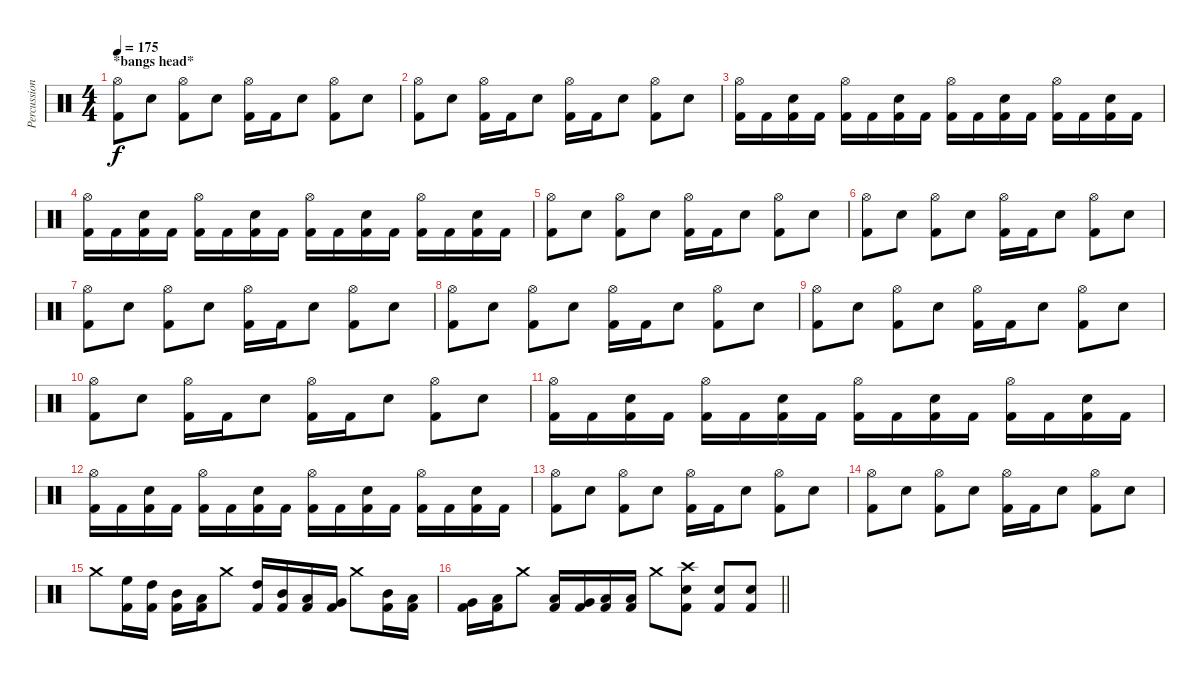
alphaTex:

\track ("Percussion" "Percussion") {instrument percussion}
\staff {score}
\articulation defaults
\ts (4 4)
\section ("" "*bangs head*")
\tempo 175
\clef neutral
\ks c
("Hi-Hat (open)" "Kick (hit) 2").8{dy f} "Electric Snare (hit)".8 ("Hi-Hat (open)" "Kick (hit) 2").8 "Electric Snare (hit)".8 ("Hi-Hat (open)" "Kick (hit) 2").16 "Kick (hit) 2".16 "Electric Snare (hit)".8 ("Hi-Hat (open)" "Kick (hit) 2").8 "Electric Snare (hit)".8 |
("Hi-Hat (open)" "Kick (hit) 2").8 "Electric Snare (hit)".8 ("Hi-Hat (open)" "Kick (hit) 2").16 "Kick (hit) 2".16 "Electric Snare (hit)".8 ("Hi-Hat (open)" "Kick (hit) 2").16 "Kick (hit) 2".16 "Electric Snare (hit)".8 ("Hi-Hat (open)" "Kick (hit) 2").8 "Electric Snare (hit)".8 |
("Hi-Hat (open)" "Kick (hit) 2").16 "Kick (hit) 2".16 ("Electric Snare (hit)" "Kick (hit) 2").16 "Kick (hit) 2".16 ("Hi-Hat (open)" "Kick (hit) 2").16 "Kick (hit) 2".16 ("Electric Snare (hit)" "Kick (hit) 2").16 "Kick (hit) 2".16 ("Hi-Hat (open)" "Kick (hit) 2").16 "Kick (hit) 2".16 ("Electric Snare (hit)" "Kick (hit) 2").16 "Kick (hit) 2".16 ("Hi-Hat (open)" "Kick (hit) 2").16 "Kick (hit) 2".16 ("Electric Snare (hit)" "Kick (hit) 2").16 "Kick (hit) 2".16 |
("Hi-Hat (open)" "Kick (hit) 2").16 "Kick (hit) 2".16 ("Electric Snare (hit)" "Kick (hit) 2").16 "Kick (hit) 2".16 ("Hi-Hat (open)" "Kick (hit) 2").16 "Kick (hit) 2".16 ("Electric Snare (hit)" "Kick (hit) 2").16 "Kick (hit) 2".16 ("Hi-Hat (open)" "Kick (hit) 2").16 "Kick (hit) 2".16 ("Electric Snare (hit)" "Kick (hit) 2").16 "Kick (hit) 2".16 ("Hi-Hat (open)" "Kick (hit) 2").16 "Kick (hit) 2".16 ("Electric Snare (hit)" "Kick (hit) 2").16 "Kick (hit) 2".16 |
("Hi-Hat (open)" "Kick (hit) 2").8 "Electric Snare (hit)".8 ("Hi-Hat (open)" "Kick (hit) 2").8 "Electric Snare (hit)".8 ("Hi-Hat (open)" "Kick (hit) 2").16 "Kick (hit) 2".16 "Electric Snare (hit)".8 ("Hi-Hat (open)" "Kick (hit) 2").8 "Electric Snare (hit)".8 |
("Hi-Hat (open)" "Kick (hit) 2").8 "Electric Snare (hit)".8 ("Hi-Hat (open)" "Kick (hit) 2").8 "Electric Snare (hit)".8 ("Hi-Hat (open)" "Kick (hit) 2").16 "Kick (hit) 2".16 "Electric Snare (hit)".8 ("Hi-Hat (open)" "Kick (hit) 2").8 "Electric Snare (hit)".8 |
("Hi-Hat (open)" "Kick (hit) 2").8 "Electric Snare (hit)".8 ("Hi-Hat (open)" "Kick (hit) 2").8 "Electric Snare (hit)".8 ("Hi-Hat (open)" "Kick (hit) 2").16 "Kick (hit) 2".16 "Electric Snare (hit)".8 ("Hi-Hat (open)" "Kick (hit) 2").8 "Electric Snare (hit)".8 |
("Hi-Hat (open)" "Kick (hit) 2").8 "Electric Snare (hit)".8 ("Hi-Hat (open)" "Kick (hit) 2").8 "Electric Snare (hit)".8 ("Hi-Hat (open)" "Kick (hit) 2").16 "Kick (hit) 2".16 "Electric Snare (hit)".8 ("Hi-Hat (open)" "Kick (hit) 2").8 "Electric Snare (hit)".8 |
("Hi-Hat (open)" "Kick (hit) 2").8 "Electric Snare (hit)".8 ("Hi-Hat (open)" "Kick (hit) 2").8 "Electric Snare (hit)".8 ("Hi-Hat (open)" "Kick (hit) 2").16 "Kick (hit) 2".16 "Electric Snare (hit)".8 ("Hi-Hat (open)" "Kick (hit) 2").8 "Electric Snare (hit)".8 |
("Hi-Hat (open)" "Kick (hit) 2").8 "Electric Snare (hit)".8 ("Hi-Hat (open)" "Kick (hit) 2").16 "Kick (hit) 2".16 "Electric Snare (hit)".8 ("Hi-Hat (open)" "Kick (hit) 2").16 "Kick (hit) 2".16 "Electric Snare (hit)".8 ("Hi-Hat (open)" "Kick (hit) 2").8 "Electric Snare (hit)".8 |
("Hi-Hat (open)" "Kick (hit) 2").16 "Kick (hit) 2".16 ("Electric Snare (hit)" "Kick (hit) 2").16 "Kick (hit) 2".16 ("Hi-Hat (open)" "Kick (hit) 2").16 "Kick (hit) 2".16 ("Electric Snare (hit)" "Kick (hit) 2").16 "Kick (hit) 2".16 ("Hi-Hat (open)" "Kick (hit) 2").16 "Kick (hit) 2".16 ("Electric Snare (hit)" "Kick (hit) 2").16 "Kick (hit) 2".16 ("Hi-Hat (open)" "Kick (hit) 2").16 "Kick (hit) 2".16 ("Electric Snare (hit)" "Kick (hit) 2").16 "Kick (hit) 2".16 |
("Hi-Hat (open)" "Kick (hit) 2").16 "Kick (hit) 2".16 ("Electric Snare (hit)" "Kick (hit) 2").16 "Kick (hit) 2".16 ("Hi-Hat (open)" "Kick (hit) 2").16 "Kick (hit) 2".16 ("Electric Snare (hit)" "Kick (hit) 2").16 "Kick (hit) 2".16 ("Hi-Hat (open)" "Kick (hit) 2").16 "Kick (hit) 2".16 ("Electric Snare (hit)" "Kick (hit) 2").16 "Kick (hit) 2".16 ("Hi-Hat (open)" "Kick (hit) 2").16 "Kick (hit) 2".16 ("Electric Snare (hit)" "Kick (hit) 2").16 "Kick (hit) 2".16 |
("Hi-Hat (open)" "Kick (hit) 2").8 "Electric Snare (hit)".8 ("Hi-Hat (open)" "Kick (hit) 2").8 "Electric Snare (hit)".8 ("Hi-Hat (open)" "Kick (hit) 2").16 "Kick (hit) 2".16 "Electric Snare (hit)".8 ("Hi-Hat (open)" "Kick (hit) 2").8 "Electric Snare (hit)".8 |
("Hi-Hat (open)" "Kick (hit) 2").8 "Electric Snare (hit)".8 ("Hi-Hat (open)" "Kick (hit) 2").8 "Electric Snare (hit)".8 ("Hi-Hat (open)" "Kick (hit) 2").16 "Kick (hit) 2".16 "Electric Snare (hit)".8 ("Hi-Hat (open)" "Kick (hit) 2").8 "Electric Snare (hit)".8 |
"Crash medium (hit)".8 ("High Floor Tom (hit)" "Kick (hit) 2").16 ("High Tom (hit)" "Kick (hit) 2").16 ("Mid Tom (hit)" "Kick (hit) 2").16 ("Low Tom (hit)" "Kick (hit) 2").16 "Crash medium (hit)".8 ("High Tom (hit)" "Kick (hit) 2").16 ("Mid Tom (hit)" "Kick (hit) 2").16 ("Low Tom (hit)" "Kick (hit) 2").16 ("Very Low Tom (hit)" "Kick (hit) 2").16 "Crash medium (hit)".8 ("Mid Tom (hit)" "Kick (hit) 2").16 ("Low Tom (hit)" "Kick (hit) 2").16 |
\barLineRight lightlight
("Very Low Tom (hit)" "Kick (hit) 2").16 ("Low Floor Tom (hit)" "Kick (hit) 2").16 "Crash medium (hit)".8 ("Low Tom (hit)" "Kick (hit) 2").16 ("Very Low Tom (hit)" "Kick (hit) 2").16 ("Low Floor Tom (hit)" "Kick (hit) 2").16 ("Low Floor Tom (hit)" "Kick (hit) 2").16 "Crash medium (hit)".8 ("Crash high (hit)" "Electric Snare (hit)" "Kick (hit) 2").8 ("Electric Snare (hit)" "Kick (hit) 2").8 ("Electric Snare (hit)" "Kick (hit) 2").8
